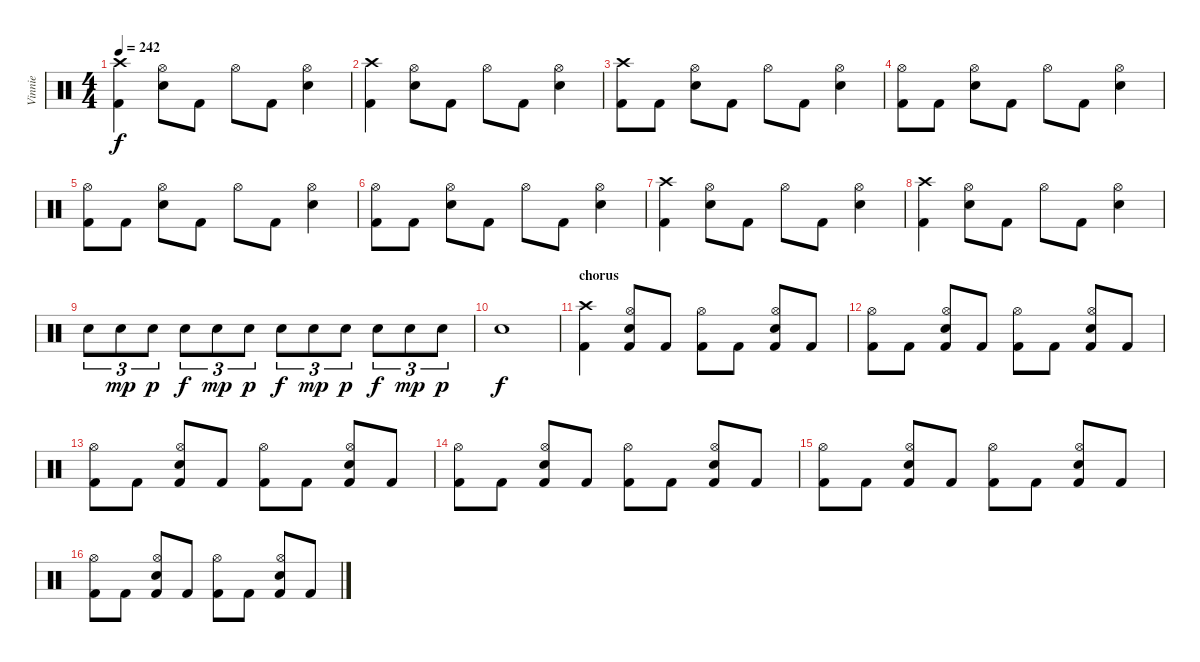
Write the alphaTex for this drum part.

\track ("Vinnie" "Vinnie") {instrument percussion}
\staff {score}
\articulation defaults
\ts (4 4)
\tempo 242
\clef neutral
\ks c
("Crash high (hit)" "Kick (hit) 2").4{dy f} ("Hi-Hat (open)" "Snare (hit) 2").8 "Kick (hit) 2".8 "Hi-Hat (open)".8 "Kick (hit) 2".8 ("Hi-Hat (open)" "Snare (hit) 2").4 |
("Crash high (hit)" "Kick (hit) 2").4 ("Hi-Hat (open)" "Snare (hit) 2").8 "Kick (hit) 2".8 "Hi-Hat (open)".8 "Kick (hit) 2".8 ("Hi-Hat (open)" "Snare (hit) 2").4 |
("Crash high (hit)" "Kick (hit) 2").8 "Kick (hit) 2".8 ("Hi-Hat (open)" "Snare (hit) 2").8 "Kick (hit) 2".8 "Hi-Hat (open)".8 "Kick (hit) 2".8 ("Hi-Hat (open)" "Snare (hit) 2").4 |
("Hi-Hat (open)" "Kick (hit) 2").8 "Kick (hit) 2".8 ("Hi-Hat (open)" "Snare (hit) 2").8 "Kick (hit) 2".8 "Hi-Hat (open)".8 "Kick (hit) 2".8 ("Hi-Hat (open)" "Snare (hit) 2").4 |
("Hi-Hat (open)" "Kick (hit) 2").8 "Kick (hit) 2".8 ("Hi-Hat (open)" "Snare (hit) 2").8 "Kick (hit) 2".8 "Hi-Hat (open)".8 "Kick (hit) 2".8 ("Hi-Hat (open)" "Snare (hit) 2").4 |
("Hi-Hat (open)" "Kick (hit) 2").8 "Kick (hit) 2".8 ("Hi-Hat (open)" "Snare (hit) 2").8 "Kick (hit) 2".8 "Hi-Hat (open)".8 "Kick (hit) 2".8 ("Hi-Hat (open)" "Snare (hit) 2").4 |
("Crash high (hit)" "Kick (hit) 2").4 ("Hi-Hat (open)" "Snare (hit) 2").8 "Kick (hit) 2".8 "Hi-Hat (open)".8 "Kick (hit) 2".8 ("Hi-Hat (open)" "Snare (hit) 2").4 |
("Crash high (hit)" "Kick (hit) 2").4 ("Hi-Hat (open)" "Snare (hit) 2").8 "Kick (hit) 2".8 "Hi-Hat (open)".8 "Kick (hit) 2".8 ("Hi-Hat (open)" "Snare (hit) 2").4 |
"Snare (hit) 2".8{tu (3 2)} "Snare (hit) 2".8{tu (3 2) dy mp} "Snare (hit) 2".8{tu (3 2) dy p} "Snare (hit) 2".8{tu (3 2) dy f} "Snare (hit) 2".8{tu (3 2) dy mp} "Snare (hit) 2".8{tu (3 2) dy p} "Snare (hit) 2".8{tu (3 2) dy f} "Snare (hit) 2".8{tu (3 2) dy mp} "Snare (hit) 2".8{tu (3 2) dy p} "Snare (hit) 2".8{tu (3 2) dy f} "Snare (hit) 2".8{tu (3 2) dy mp} "Snare (hit) 2".8{tu (3 2) dy p} |
"Snare (hit) 2".1{dy f} |
\section ("" "chorus")
("Crash high (hit)" "Kick (hit) 2").4 ("Hi-Hat (open)" "Snare (hit) 2" "Kick (hit) 2").8 "Kick (hit) 2".8 ("Hi-Hat (open)" "Kick (hit) 2").8 "Kick (hit) 2".8 ("Hi-Hat (open)" "Snare (hit) 2" "Kick (hit) 2").8 "Kick (hit) 2".8 |
("Hi-Hat (open)" "Kick (hit) 2").8 "Kick (hit) 2".8 ("Hi-Hat (open)" "Snare (hit) 2" "Kick (hit) 2").8 "Kick (hit) 2".8 ("Hi-Hat (open)" "Kick (hit) 2").8 "Kick (hit) 2".8 ("Hi-Hat (open)" "Snare (hit) 2" "Kick (hit) 2").8 "Kick (hit) 2".8 |
("Hi-Hat (open)" "Kick (hit) 2").8 "Kick (hit) 2".8 ("Hi-Hat (open)" "Snare (hit) 2" "Kick (hit) 2").8 "Kick (hit) 2".8 ("Hi-Hat (open)" "Kick (hit) 2").8 "Kick (hit) 2".8 ("Hi-Hat (open)" "Snare (hit) 2" "Kick (hit) 2").8 "Kick (hit) 2".8 |
("Hi-Hat (open)" "Kick (hit) 2").8 "Kick (hit) 2".8 ("Hi-Hat (open)" "Snare (hit) 2" "Kick (hit) 2").8 "Kick (hit) 2".8 ("Hi-Hat (open)" "Kick (hit) 2").8 "Kick (hit) 2".8 ("Hi-Hat (open)" "Snare (hit) 2" "Kick (hit) 2").8 "Kick (hit) 2".8 |
("Hi-Hat (open)" "Kick (hit) 2").8 "Kick (hit) 2".8 ("Hi-Hat (open)" "Snare (hit) 2" "Kick (hit) 2").8 "Kick (hit) 2".8 ("Hi-Hat (open)" "Kick (hit) 2").8 "Kick (hit) 2".8 ("Hi-Hat (open)" "Snare (hit) 2" "Kick (hit) 2").8 "Kick (hit) 2".8 |
("Hi-Hat (open)" "Kick (hit) 2").8 "Kick (hit) 2".8 ("Hi-Hat (open)" "Snare (hit) 2" "Kick (hit) 2").8 "Kick (hit) 2".8 ("Hi-Hat (open)" "Kick (hit) 2").8 "Kick (hit) 2".8 ("Hi-Hat (open)" "Snare (hit) 2" "Kick (hit) 2").8 "Kick (hit) 2".8
